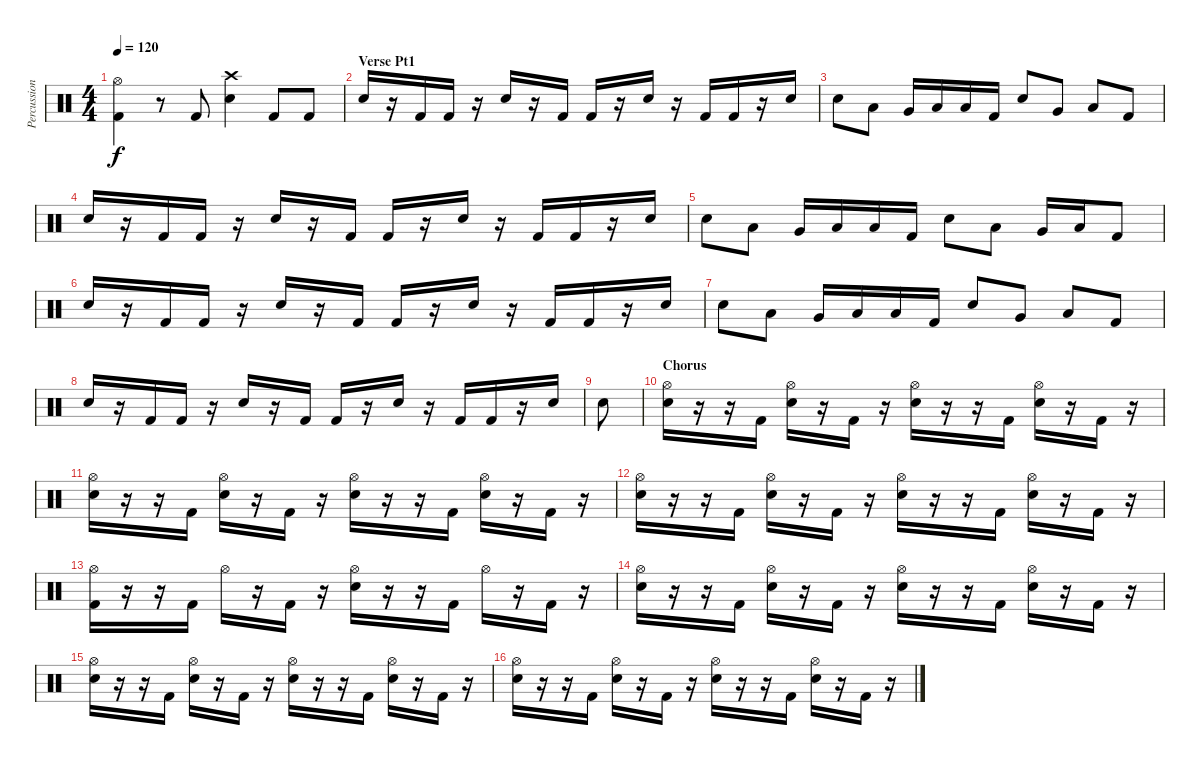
\track ("Percussion" "Percussion") {instrument percussion}
\staff {score}
\articulation defaults
\ts (4 4)
\tempo 120
\clef neutral
\ks c
("Hi-Hat (open)" "Kick (hit) 2").4{dy f} r.8 "Kick (hit) 2".8 ("Crash high (hit)" "Electric Snare (hit)").4 "Kick (hit) 2".8 "Kick (hit) 2".8 |
\section ("" "Verse Pt1")
"Electric Snare (hit)".16 r.16 "Kick (hit) 2".16 "Kick (hit) 2".16 r.16 "Electric Snare (hit)".16 r.16 "Kick (hit) 2".16 "Kick (hit) 2".16 r.16 "Electric Snare (hit)".16 r.16 "Kick (hit) 2".16 "Kick (hit) 2".16 r.16 "Electric Snare (hit)".16 |
"Electric Snare (hit)".8 "Low Tom (hit)".8 "Very Low Tom (hit)".16 "Low Floor Tom (hit)".16 "Low Floor Tom (hit)".16 "Kick (hit) 2".16 "Electric Snare (hit)".8 "Very Low Tom (hit)".8 "Low Floor Tom (hit)".8 "Kick (hit) 2".8 |
"Electric Snare (hit)".16 r.16 "Kick (hit) 2".16 "Kick (hit) 2".16 r.16 "Electric Snare (hit)".16 r.16 "Kick (hit) 2".16 "Kick (hit) 2".16 r.16 "Electric Snare (hit)".16 r.16 "Kick (hit) 2".16 "Kick (hit) 2".16 r.16 "Electric Snare (hit)".16 |
"Electric Snare (hit)".8 "Low Tom (hit)".8 "Very Low Tom (hit)".16 "Low Floor Tom (hit)".16 "Low Floor Tom (hit)".16 "Kick (hit) 2".16 "Electric Snare (hit)".8 "Low Tom (hit)".8 "Very Low Tom (hit)".16 "Low Floor Tom (hit)".16 "Kick (hit) 2".8 |
"Electric Snare (hit)".16 r.16 "Kick (hit) 2".16 "Kick (hit) 2".16 r.16 "Electric Snare (hit)".16 r.16 "Kick (hit) 2".16 "Kick (hit) 2".16 r.16 "Electric Snare (hit)".16 r.16 "Kick (hit) 2".16 "Kick (hit) 2".16 r.16 "Electric Snare (hit)".16 |
"Electric Snare (hit)".8 "Low Tom (hit)".8 "Very Low Tom (hit)".16 "Low Floor Tom (hit)".16 "Low Floor Tom (hit)".16 "Kick (hit) 2".16 "Electric Snare (hit)".8 "Very Low Tom (hit)".8 "Low Floor Tom (hit)".8 "Kick (hit) 2".8 |
"Electric Snare (hit)".16 r.16 "Kick (hit) 2".16 "Kick (hit) 2".16 r.16 "Electric Snare (hit)".16 r.16 "Kick (hit) 2".16 "Kick (hit) 2".16 r.16 "Electric Snare (hit)".16 r.16 "Kick (hit) 2".16 "Kick (hit) 2".16 r.16 "Electric Snare (hit)".16 |
"Electric Snare (hit)".8 |
\section ("" "Chorus")
("Hi-Hat (open)" "Electric Snare (hit)").16 r.16 r.16 "Kick (hit) 2".16 ("Hi-Hat (open)" "Electric Snare (hit)").16 r.16 "Kick (hit) 2".16 r.16 ("Hi-Hat (open)" "Electric Snare (hit)").16 r.16 r.16 "Kick (hit) 2".16 ("Hi-Hat (open)" "Electric Snare (hit)").16 r.16 "Kick (hit) 2".16 r.16 |
("Hi-Hat (open)" "Electric Snare (hit)").16 r.16 r.16 "Kick (hit) 2".16 ("Hi-Hat (open)" "Electric Snare (hit)").16 r.16 "Kick (hit) 2".16 r.16 ("Hi-Hat (open)" "Electric Snare (hit)").16 r.16 r.16 "Kick (hit) 2".16 ("Hi-Hat (open)" "Electric Snare (hit)").16 r.16 "Kick (hit) 2".16 r.16 |
("Hi-Hat (open)" "Electric Snare (hit)").16 r.16 r.16 "Kick (hit) 2".16 ("Hi-Hat (open)" "Electric Snare (hit)").16 r.16 "Kick (hit) 2".16 r.16 ("Hi-Hat (open)" "Electric Snare (hit)").16 r.16 r.16 "Kick (hit) 2".16 ("Hi-Hat (open)" "Electric Snare (hit)").16 r.16 "Kick (hit) 2".16 r.16 |
("Hi-Hat (open)" "Kick (hit) 2").16 r.16 r.16 "Kick (hit) 2".16 "Hi-Hat (open)".16 r.16 "Kick (hit) 2".16 r.16 ("Hi-Hat (open)" "Electric Snare (hit)").16 r.16 r.16 "Kick (hit) 2".16 "Hi-Hat (open)".16 r.16 "Kick (hit) 2".16 r.16 |
("Hi-Hat (open)" "Electric Snare (hit)").16 r.16 r.16 "Kick (hit) 2".16 ("Hi-Hat (open)" "Electric Snare (hit)").16 r.16 "Kick (hit) 2".16 r.16 ("Hi-Hat (open)" "Electric Snare (hit)").16 r.16 r.16 "Kick (hit) 2".16 ("Hi-Hat (open)" "Electric Snare (hit)").16 r.16 "Kick (hit) 2".16 r.16 |
("Hi-Hat (open)" "Electric Snare (hit)").16 r.16 r.16 "Kick (hit) 2".16 ("Hi-Hat (open)" "Electric Snare (hit)").16 r.16 "Kick (hit) 2".16 r.16 ("Hi-Hat (open)" "Electric Snare (hit)").16 r.16 r.16 "Kick (hit) 2".16 ("Hi-Hat (open)" "Electric Snare (hit)").16 r.16 "Kick (hit) 2".16 r.16 |
("Hi-Hat (open)" "Electric Snare (hit)").16 r.16 r.16 "Kick (hit) 2".16 ("Hi-Hat (open)" "Electric Snare (hit)").16 r.16 "Kick (hit) 2".16 r.16 ("Hi-Hat (open)" "Electric Snare (hit)").16 r.16 r.16 "Kick (hit) 2".16 ("Hi-Hat (open)" "Electric Snare (hit)").16 r.16 "Kick (hit) 2".16 r.16
